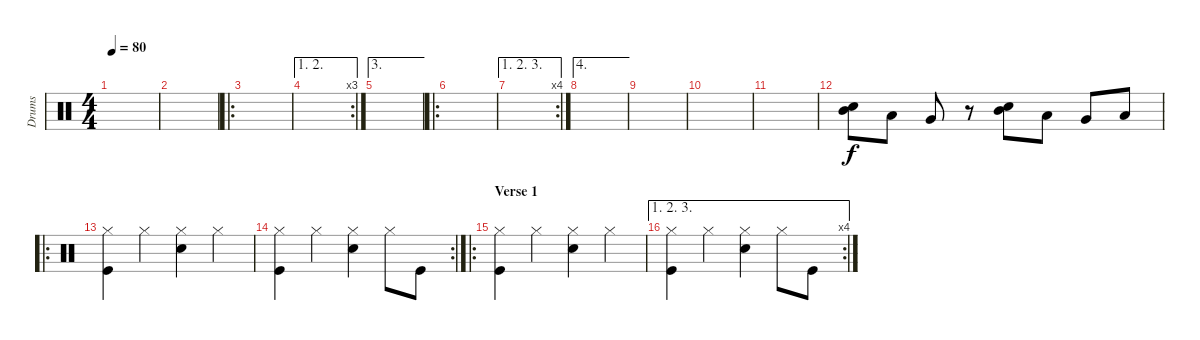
\track ("Drums" "Drums") {instrument percussion}
\staff {score}
\articulation defaults
\ts (4 4)
\tempo 80
\clef neutral
\ks c
|
|
\ro
|
\ae (1 2)
\rc 3
|
\ae 3
|
\ro
|
\ae (1 2 3)
\rc 4
|
\ae 4
|
|
|
|
("Mid Tom (hit)" "Snare (hit) 2").8 "Low Tom (hit)".8 "Very Low Tom (hit)".8 r.8 ("Mid Tom (hit)" "Snare (hit) 2").8 "Low Tom (hit)".8 "Very Low Tom (hit)".8 "Low Floor Tom (hit)".8 |
\ro
("Hi-Hat (closed)" "Kick (hit)").4 "Hi-Hat (closed)".4 ("Hi-Hat (closed)" "Snare (hit) 2").4 "Hi-Hat (closed)".4 |
\rc 2
("Hi-Hat (closed)" "Kick (hit)").4 "Hi-Hat (closed)".4 ("Hi-Hat (closed)" "Snare (hit) 2").4 "Hi-Hat (closed)".8 "Kick (hit)".8 |
\ro
\section ("" "Verse 1")
("Hi-Hat (closed)" "Kick (hit)").4 "Hi-Hat (closed)".4 ("Hi-Hat (closed)" "Snare (hit) 2").4 "Hi-Hat (closed)".4 |
\ae (1 2 3)
\rc 4
("Hi-Hat (closed)" "Kick (hit)").4 "Hi-Hat (closed)".4 ("Hi-Hat (closed)" "Snare (hit) 2").4 "Hi-Hat (closed)".8 "Kick (hit)".8
